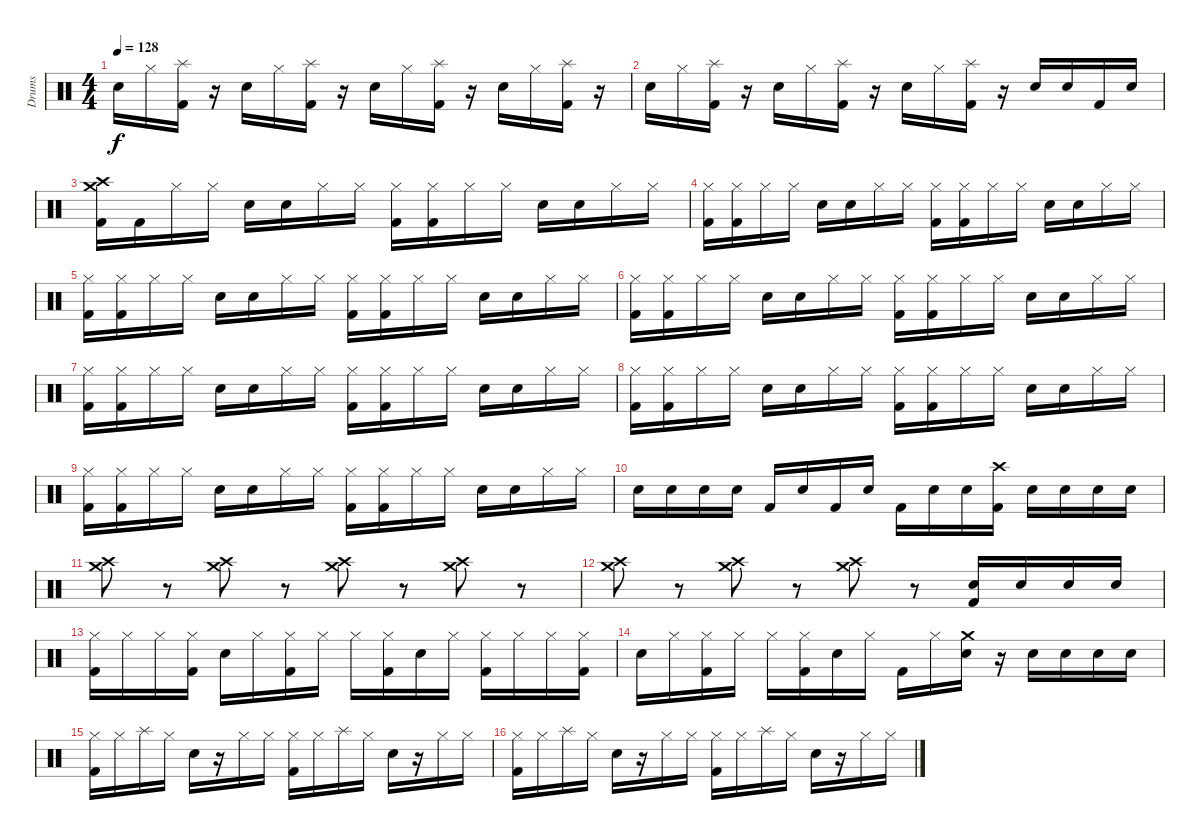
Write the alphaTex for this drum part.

\track ("Drums" "Drums") {instrument percussion}
\staff {score}
\articulation defaults
\ts (4 4)
\tempo 128
\clef neutral
\ks c "Snare (hit) 2".16{dy f} "Hi-Hat (closed)".16
("Splash (hit)" "Kick (hit) 2").16 r.16 "Snare (hit) 2".16 "Hi-Hat (closed)".16 ("Splash (hit)" "Kick (hit) 2").16 r.16 "Snare (hit) 2".16 "Hi-Hat (closed)".16 ("Splash (hit)" "Kick (hit) 2").16 r.16 "Snare (hit) 2".16 "Hi-Hat (closed)".16 ("Splash (hit)" "Kick (hit) 2").16 r.16 |
"Snare (hit) 2".16 "Hi-Hat (closed)".16 ("Splash (hit)" "Kick (hit) 2").16 r.16 "Snare (hit) 2".16 "Hi-Hat (closed)".16 ("Splash (hit)" "Kick (hit) 2").16 r.16 "Snare (hit) 2".16 "Hi-Hat (closed)".16 ("Splash (hit)" "Kick (hit) 2").16 r.16 "Snare (hit) 2".16 "Snare (hit) 2".16 "Kick (hit) 2".16 "Snare (hit) 2".16 |
("Crash medium (hit)" "Crash high (hit)" "Kick (hit) 2").16 "Kick (hit) 2".16 "Hi-Hat (closed)".16 "Hi-Hat (closed)".16 "Snare (hit) 2".16 "Snare (hit) 2".16 "Hi-Hat (closed)".16 "Hi-Hat (closed)".16 ("Hi-Hat (closed)" "Kick (hit) 2").16 ("Hi-Hat (closed)" "Kick (hit) 2").16 "Hi-Hat (closed)".16 "Hi-Hat (closed)".16 "Snare (hit) 2".16 "Snare (hit) 2".16 "Hi-Hat (closed)".16 "Hi-Hat (closed)".16 |
("Hi-Hat (closed)" "Kick (hit) 2").16 ("Hi-Hat (closed)" "Kick (hit) 2").16 "Hi-Hat (closed)".16 "Hi-Hat (closed)".16 "Snare (hit) 2".16 "Snare (hit) 2".16 "Hi-Hat (closed)".16 "Hi-Hat (closed)".16 ("Hi-Hat (closed)" "Kick (hit) 2").16 ("Hi-Hat (closed)" "Kick (hit) 2").16 "Hi-Hat (closed)".16 "Hi-Hat (closed)".16 "Snare (hit) 2".16 "Snare (hit) 2".16 "Hi-Hat (closed)".16 "Hi-Hat (closed)".16 |
("Hi-Hat (closed)" "Kick (hit) 2").16 ("Hi-Hat (closed)" "Kick (hit) 2").16 "Hi-Hat (closed)".16 "Hi-Hat (closed)".16 "Snare (hit) 2".16 "Snare (hit) 2".16 "Hi-Hat (closed)".16 "Hi-Hat (closed)".16 ("Hi-Hat (closed)" "Kick (hit) 2").16 ("Hi-Hat (closed)" "Kick (hit) 2").16 "Hi-Hat (closed)".16 "Hi-Hat (closed)".16 "Snare (hit) 2".16 "Snare (hit) 2".16 "Hi-Hat (closed)".16 "Hi-Hat (closed)".16 |
("Hi-Hat (closed)" "Kick (hit) 2").16 ("Hi-Hat (closed)" "Kick (hit) 2").16 "Hi-Hat (closed)".16 "Hi-Hat (closed)".16 "Snare (hit) 2".16 "Snare (hit) 2".16 "Hi-Hat (closed)".16 "Hi-Hat (closed)".16 ("Hi-Hat (closed)" "Kick (hit) 2").16 ("Hi-Hat (closed)" "Kick (hit) 2").16 "Hi-Hat (closed)".16 "Hi-Hat (closed)".16 "Snare (hit) 2".16 "Snare (hit) 2".16 "Hi-Hat (closed)".16 "Hi-Hat (closed)".16 |
("Hi-Hat (closed)" "Kick (hit) 2").16 ("Hi-Hat (closed)" "Kick (hit) 2").16 "Hi-Hat (closed)".16 "Hi-Hat (closed)".16 "Snare (hit) 2".16 "Snare (hit) 2".16 "Hi-Hat (closed)".16 "Hi-Hat (closed)".16 ("Hi-Hat (closed)" "Kick (hit) 2").16 ("Hi-Hat (closed)" "Kick (hit) 2").16 "Hi-Hat (closed)".16 "Hi-Hat (closed)".16 "Snare (hit) 2".16 "Snare (hit) 2".16 "Hi-Hat (closed)".16 "Hi-Hat (closed)".16 |
("Hi-Hat (closed)" "Kick (hit) 2").16 ("Hi-Hat (closed)" "Kick (hit) 2").16 "Hi-Hat (closed)".16 "Hi-Hat (closed)".16 "Snare (hit) 2".16 "Snare (hit) 2".16 "Hi-Hat (closed)".16 "Hi-Hat (closed)".16 ("Hi-Hat (closed)" "Kick (hit) 2").16 ("Hi-Hat (closed)" "Kick (hit) 2").16 "Hi-Hat (closed)".16 "Hi-Hat (closed)".16 "Snare (hit) 2".16 "Snare (hit) 2".16 "Hi-Hat (closed)".16 "Hi-Hat (closed)".16 |
("Hi-Hat (closed)" "Kick (hit) 2").16 ("Hi-Hat (closed)" "Kick (hit) 2").16 "Hi-Hat (closed)".16 "Hi-Hat (closed)".16 "Snare (hit) 2".16 "Snare (hit) 2".16 "Hi-Hat (closed)".16 "Hi-Hat (closed)".16 ("Hi-Hat (closed)" "Kick (hit) 2").16 ("Hi-Hat (closed)" "Kick (hit) 2").16 "Hi-Hat (closed)".16 "Hi-Hat (closed)".16 "Snare (hit) 2".16 "Snare (hit) 2".16 "Hi-Hat (closed)".16 "Hi-Hat (closed)".16 |
"Snare (hit) 2".16 "Snare (hit) 2".16 "Snare (hit) 2".16 "Snare (hit) 2".16 "Kick (hit) 2".16 "Snare (hit) 2".16 "Kick (hit) 2".16 "Snare (hit) 2".16 "Kick (hit) 2".16 "Snare (hit) 2".16 "Snare (hit) 2".16 ("Crash high (hit)" "Kick (hit) 2").16 "Snare (hit) 2".16 "Snare (hit) 2".16 "Snare (hit) 2".16 "Snare (hit) 2".16 |
("Crash medium (hit)" "Crash high (hit)").8 r.8 ("Crash medium (hit)" "Crash high (hit)").8 r.8 ("Crash medium (hit)" "Crash high (hit)").8 r.8 ("Crash medium (hit)" "Crash high (hit)").8 r.8 |
("Crash medium (hit)" "Crash high (hit)").8 r.8 ("Crash medium (hit)" "Crash high (hit)").8 r.8 ("Crash medium (hit)" "Crash high (hit)").8 r.8 ("Snare (hit) 2" "Kick (hit) 2").16 "Snare (hit) 2".16 "Snare (hit) 2".16 "Snare (hit) 2".16 |
("Hi-Hat (closed)" "Kick (hit) 2").16 "Hi-Hat (closed)".16 "Hi-Hat (closed)".16 ("Hi-Hat (closed)" "Kick (hit) 2").16 "Snare (hit) 2".16 "Hi-Hat (closed)".16 ("Hi-Hat (closed)" "Kick (hit) 2").16 "Hi-Hat (closed)".16 "Hi-Hat (closed)".16 ("Hi-Hat (closed)" "Kick (hit) 2").16 "Snare (hit) 2".16 "Hi-Hat (closed)".16 ("Hi-Hat (closed)" "Kick (hit) 2").16 "Hi-Hat (closed)".16 "Hi-Hat (closed)".16 ("Hi-Hat (closed)" "Kick (hit) 2").16 |
"Snare (hit) 2".16 "Hi-Hat (closed)".16 ("Hi-Hat (closed)" "Kick (hit) 2").16 "Hi-Hat (closed)".16 "Hi-Hat (closed)".16 ("Hi-Hat (closed)" "Kick (hit) 2").16 "Snare (hit) 2".16 "Hi-Hat (closed)".16 "Kick (hit) 2".16 "Hi-Hat (closed)".16 ("Crash medium (hit)" "Snare (hit) 2").16 r.16 "Snare (hit) 2".16 "Snare (hit) 2".16 "Snare (hit) 2".16 "Snare (hit) 2".16 |
("Hi-Hat (closed)" "Kick (hit) 2").16 "Hi-Hat (closed)".16 "Splash (hit)".16 "Hi-Hat (closed)".16 "Snare (hit) 2".16 r.16 "Hi-Hat (closed)".16 "Hi-Hat (closed)".16 ("Hi-Hat (closed)" "Kick (hit) 2").16 "Hi-Hat (closed)".16 "Splash (hit)".16 "Hi-Hat (closed)".16 "Snare (hit) 2".16 r.16 "Hi-Hat (closed)".16 "Hi-Hat (closed)".16 |
("Hi-Hat (closed)" "Kick (hit) 2").16 "Hi-Hat (closed)".16 "Splash (hit)".16 "Hi-Hat (closed)".16 "Snare (hit) 2".16 r.16 "Hi-Hat (closed)".16 "Hi-Hat (closed)".16 ("Hi-Hat (closed)" "Kick (hit) 2").16 "Hi-Hat (closed)".16 "Splash (hit)".16 "Hi-Hat (closed)".16 "Snare (hit) 2".16 r.16 "Hi-Hat (closed)".16 "Hi-Hat (closed)".16
